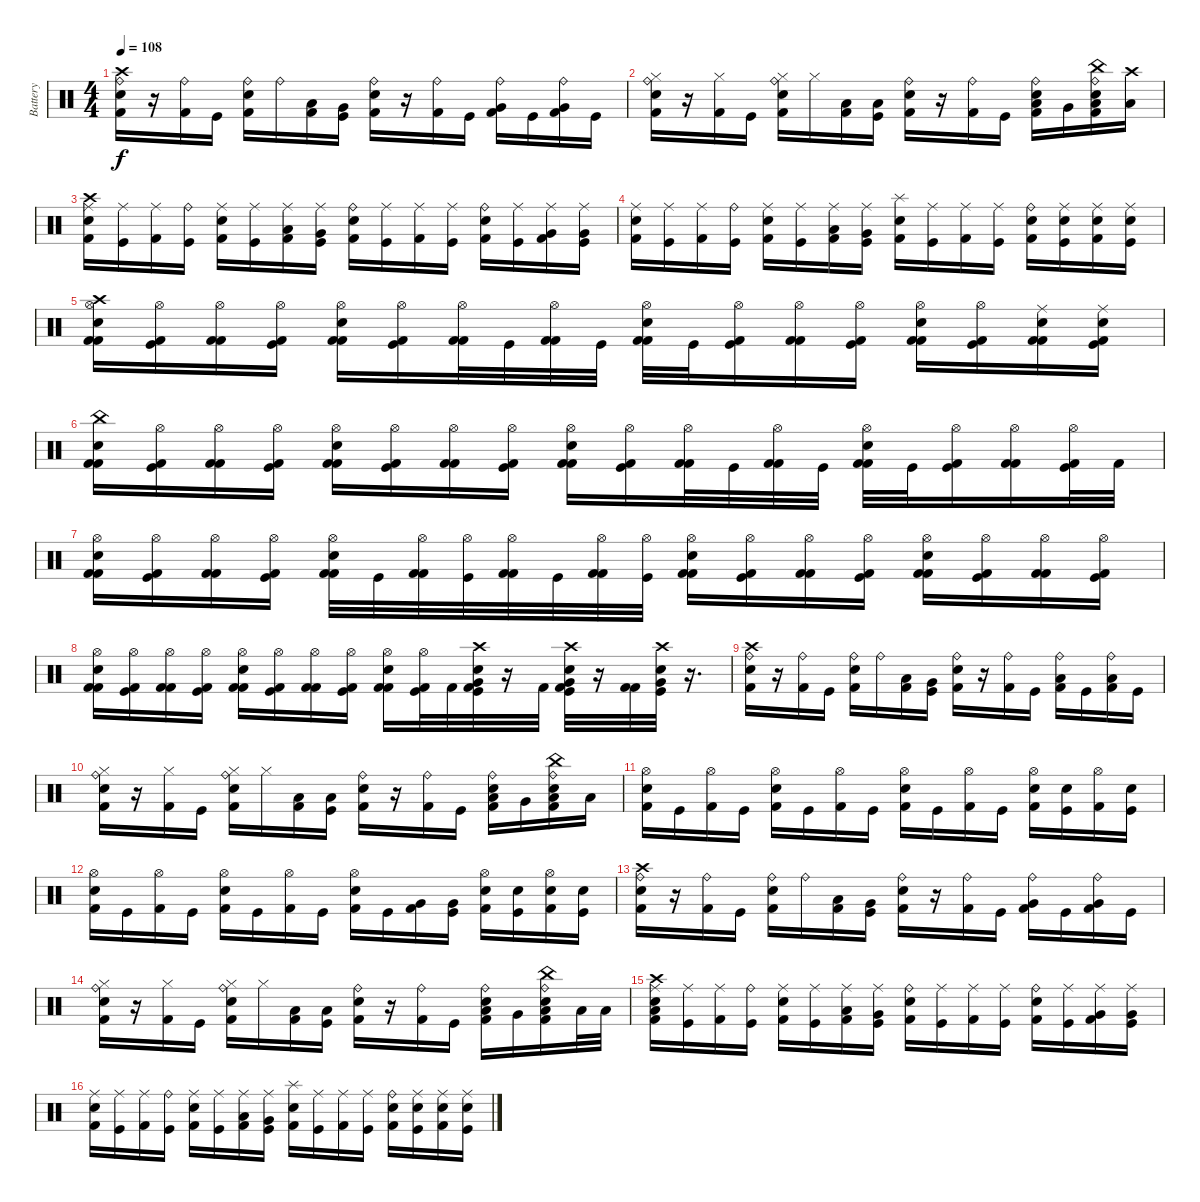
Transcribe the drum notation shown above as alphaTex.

\track ("Battery" "Battery") {instrument percussion}
\staff {score}
\articulation defaults
\ts (4 4)
\tempo 108
\clef neutral
\ks c
("Crash high (hit)" "Ride (bell)" "Electric Snare (hit)" "Kick (hit) 2").16{dy f} r.16 ("Kick (hit) 2" "Ride (bell)").16 "Kick (hit)".16 ("Ride (bell)" "Electric Snare (hit)" "Kick (hit) 2").16 "Ride (bell)".16 ("Kick (hit) 2" "Low Tom (hit)").16 ("Kick (hit)" "Very Low Tom (hit)").16 ("Kick (hit) 2" "Electric Snare (hit)" "Ride (bell)").16 r.16 ("Ride (bell)" "Kick (hit) 2").16 "Kick (hit)".16 ("Very Low Tom (hit)" "Ride (bell)" "Kick (hit) 2").16 "Kick (hit)".16 ("Very Low Tom (hit)" "Ride (bell)" "Kick (hit) 2").16 "Kick (hit)".16 |
("Electric Snare (hit)" "Hi-Hat (closed)" "Ride (bell)" "Kick (hit) 2").16 r.16 ("Hi-Hat (closed)" "Kick (hit) 2").16 "Kick (hit)".16 ("Hi-Hat (closed)" "Kick (hit) 2" "Electric Snare (hit)" "Ride (bell)").16 "Hi-Hat (closed)".16 ("Kick (hit) 2" "Low Tom (hit)").16 ("Low Tom (hit)" "Kick (hit)").16 ("Electric Snare (hit)" "Kick (hit) 2" "Ride (bell)").16 r.16 ("Ride (bell)" "Kick (hit) 2").16 "Kick (hit)".16 ("Low Tom (hit)" "Ride (bell)" "Electric Snare (hit)" "Kick (hit) 2").16 "Very Low Tom (hit)".16 ("Low Floor Tom (hit)" "Electric Snare (hit)" "Ride (bell)" "China (hit)" "Kick (hit) 2").16 ("Low Floor Tom (hit)" "Crash high (hit)").16 |
("Kick (hit) 2" "Crash high (hit)" "Electric Snare (hit)" "Ride (middle)").16 ("Ride (middle)" "Kick (hit)").16 ("Ride (middle)" "Kick (hit) 2").16 ("Kick (hit)" "Ride (bell)").16 ("Kick (hit) 2" "Electric Snare (hit)" "Ride (middle)").16 ("Ride (middle)" "Kick (hit)").16 ("Ride (middle)" "Low Tom (hit)" "Kick (hit) 2").16 ("Kick (hit)" "Very Low Tom (hit)" "Ride (middle)").16 ("Kick (hit) 2" "Electric Snare (hit)" "Ride (bell)").16 ("Ride (middle)" "Kick (hit)").16 ("Kick (hit) 2" "Ride (middle)").16 ("Kick (hit)" "Ride (middle)").16 ("Ride (bell)" "Electric Snare (hit)" "Kick (hit) 2").16 ("Ride (middle)" "Kick (hit)").16 ("Very Low Tom (hit)" "Kick (hit) 2" "Ride (middle)").16 ("Kick (hit)" "Ride (middle)" "Very Low Tom (hit)").16 |
("Ride (middle)" "Kick (hit) 2" "Electric Snare (hit)").16 ("Kick (hit)" "Ride (middle)").16 ("Kick (hit) 2" "Ride (middle)").16 ("Kick (hit)" "Ride (bell)").16 ("Kick (hit) 2" "Ride (middle)" "Electric Snare (hit)").16 ("Kick (hit)" "Ride (middle)").16 ("Ride (middle)" "Kick (hit) 2" "Low Tom (hit)").16 ("Kick (hit)" "Very Low Tom (hit)" "Ride (middle)").16 ("Splash (hit)" "Electric Snare (hit)" "Kick (hit) 2").16 ("Ride (middle)" "Kick (hit)").16 ("Kick (hit) 2" "Ride (middle)").16 ("Ride (middle)" "Kick (hit)").16 ("Ride (bell)" "Snare (hit) 2" "Kick (hit) 2").16 ("Snare (hit) 2" "Ride (middle)" "Kick (hit)").16 ("Snare (hit) 2" "Kick (hit) 2" "Ride (middle)").16 ("Kick (hit)" "Ride (middle)" "Snare (hit) 2").16 |
("Hi-Hat (open)" "Electric Snare (hit)" "Kick (hit) 2" "Crash high (hit)" "Kick (hit) 2").16 ("Hi-Hat (open)" "Kick (hit)" "Kick (hit) 2").16 ("Kick (hit) 2" "Hi-Hat (open)" "Kick (hit) 2").16 ("Hi-Hat (open)" "Kick (hit)" "Kick (hit) 2").16 ("Electric Snare (hit)" "Kick (hit) 2" "Hi-Hat (open)" "Kick (hit) 2").16 ("Hi-Hat (open)" "Kick (hit)" "Kick (hit) 2").16 ("Kick (hit) 2" "Hi-Hat (open)" "Kick (hit) 2").32 "Kick (hit)".32 ("Kick (hit) 2" "Hi-Hat (open)" "Kick (hit) 2").32 "Kick (hit)".32 ("Kick (hit) 2" "Electric Snare (hit)" "Hi-Hat (open)" "Kick (hit) 2").32 "Kick (hit)".32 ("Kick (hit)" "Hi-Hat (open)" "Kick (hit) 2").16 ("Kick (hit) 2" "Hi-Hat (open)" "Kick (hit) 2").16 ("Kick (hit)" "Hi-Hat (open)" "Kick (hit) 2").16 ("Kick (hit) 2" "Electric Snare (hit)" "Hi-Hat (open)" "Kick (hit) 2").16 ("Kick (hit)" "Hi-Hat (open)" "Kick (hit) 2").16 ("Ride (middle)" "Kick (hit) 2" "Snare (hit) 2" "Kick (hit) 2").16 ("Ride (middle)" "Snare (hit) 2" "Kick (hit)" "Kick (hit) 2").16 |
("China (hit)" "Electric Snare (hit)" "Kick (hit) 2" "Kick (hit) 2").16 ("Hi-Hat (open)" "Kick (hit)" "Kick (hit) 2").16 ("Hi-Hat (open)" "Kick (hit) 2" "Kick (hit) 2").16 ("Kick (hit)" "Hi-Hat (open)" "Kick (hit) 2").16 ("Hi-Hat (open)" "Kick (hit) 2" "Electric Snare (hit)" "Kick (hit) 2").16 ("Kick (hit)" "Hi-Hat (open)" "Kick (hit) 2").16 ("Hi-Hat (open)" "Kick (hit) 2" "Kick (hit) 2").16 ("Hi-Hat (open)" "Kick (hit)" "Kick (hit) 2").16 ("Electric Snare (hit)" "Kick (hit) 2" "Hi-Hat (open)" "Kick (hit) 2").16 ("Kick (hit)" "Hi-Hat (open)" "Kick (hit) 2").16 ("Kick (hit) 2" "Hi-Hat (open)" "Kick (hit) 2").32 "Kick (hit)".32 ("Kick (hit) 2" "Hi-Hat (open)" "Kick (hit) 2").32 "Kick (hit)".32 ("Kick (hit) 2" "Hi-Hat (open)" "Electric Snare (hit)" "Kick (hit) 2").32 "Kick (hit)".32 ("Hi-Hat (open)" "Kick (hit)" "Kick (hit) 2").16 ("Hi-Hat (open)" "Kick (hit) 2" "Kick (hit) 2").16 ("Hi-Hat (open)" "Kick (hit)" "Kick (hit) 2").32 "Kick (hit) 2".32 |
("Hi-Hat (open)" "Kick (hit) 2" "Electric Snare (hit)" "Kick (hit) 2").16 ("Hi-Hat (open)" "Kick (hit)" "Kick (hit) 2").16 ("Kick (hit) 2" "Hi-Hat (open)" "Kick (hit) 2").16 ("Kick (hit)" "Hi-Hat (open)" "Kick (hit) 2").16 ("Electric Snare (hit)" "Kick (hit) 2" "Hi-Hat (open)" "Kick (hit) 2").32 "Kick (hit)".32 ("Kick (hit) 2" "Hi-Hat (open)" "Kick (hit) 2").32 ("Hi-Hat (open)" "Kick (hit)").32 ("Hi-Hat (open)" "Kick (hit) 2" "Kick (hit) 2").32 "Kick (hit)".32 ("Hi-Hat (open)" "Kick (hit) 2" "Kick (hit) 2").32 ("Hi-Hat (open)" "Kick (hit)").32 ("Hi-Hat (open)" "Kick (hit) 2" "Electric Snare (hit)" "Kick (hit) 2").16 ("Hi-Hat (open)" "Kick (hit)" "Kick (hit) 2").16 ("Hi-Hat (open)" "Kick (hit) 2" "Kick (hit) 2").16 ("Hi-Hat (open)" "Kick (hit)" "Kick (hit) 2").16 ("Kick (hit) 2" "Electric Snare (hit)" "Hi-Hat (open)" "Kick (hit) 2").16 ("Hi-Hat (open)" "Kick (hit)" "Kick (hit) 2").16 ("Kick (hit) 2" "Hi-Hat (open)" "Kick (hit) 2").16 ("Kick (hit)" "Hi-Hat (open)" "Kick (hit) 2").16 |
("Kick (hit) 2" "Hi-Hat (open)" "Electric Snare (hit)" "Kick (hit) 2").16 ("Hi-Hat (open)" "Kick (hit)" "Kick (hit) 2").16 ("Hi-Hat (open)" "Kick (hit) 2" "Kick (hit) 2").16 ("Kick (hit)" "Hi-Hat (open)" "Kick (hit) 2").16 ("Hi-Hat (open)" "Electric Snare (hit)" "Kick (hit) 2" "Kick (hit) 2").16 ("Kick (hit)" "Hi-Hat (open)" "Kick (hit) 2").16 ("Hi-Hat (open)" "Kick (hit) 2" "Kick (hit) 2").16 ("Hi-Hat (open)" "Kick (hit)" "Kick (hit) 2").16 ("Electric Snare (hit)" "Hi-Hat (open)" "Kick (hit) 2" "Kick (hit) 2").16 ("Kick (hit)" "Hi-Hat (open)" "Kick (hit) 2").32 "Kick (hit) 2".32 ("Very Low Tom (hit)" "Kick (hit)" "Crash high (hit)" "Snare (hit) 2" "Kick (hit) 2").32 r.16 "Kick (hit) 2".32 ("Snare (hit) 2" "Crash high (hit)" "Very Low Tom (hit)" "Kick (hit)" "Kick (hit) 2").32 r.16 ("Kick (hit) 2" "Kick (hit) 2").32 ("Crash high (hit)" "Very Low Tom (hit)" "Snare (hit) 2" "Kick (hit)").32 r.16{d} |
("Electric Snare (hit)" "Ride (bell)" "Crash high (hit)" "Kick (hit) 2").16 r.16 ("Ride (bell)" "Kick (hit) 2").16 "Kick (hit)".16 ("Ride (bell)" "Kick (hit) 2" "Electric Snare (hit)").16 "Ride (bell)".16 ("Low Tom (hit)" "Kick (hit) 2").16 ("Kick (hit)" "Very Low Tom (hit)").16 ("Kick (hit) 2" "Ride (bell)" "Electric Snare (hit)").16 r.16 ("Kick (hit) 2" "Ride (bell)").16 "Kick (hit)".16 ("Low Tom (hit)" "Ride (bell)" "Kick (hit) 2").16 "Kick (hit)".16 ("Ride (bell)" "Kick (hit) 2" "Low Tom (hit)").16 "Kick (hit)".16 |
("Hi-Hat (closed)" "Ride (bell)" "Electric Snare (hit)" "Kick (hit) 2").16 r.16 ("Kick (hit) 2" "Hi-Hat (closed)").16 "Kick (hit)".16 ("Ride (bell)" "Electric Snare (hit)" "Hi-Hat (closed)" "Kick (hit) 2").16 "Hi-Hat (closed)".16 ("Low Tom (hit)" "Kick (hit) 2").16 ("Kick (hit)" "Low Tom (hit)").16 ("Electric Snare (hit)" "Kick (hit) 2" "Ride (bell)").16 r.16 ("Ride (bell)" "Kick (hit) 2").16 "Kick (hit)".16 ("Low Tom (hit)" "Kick (hit) 2" "Electric Snare (hit)" "Ride (bell)").16 "Very Low Tom (hit)".16 ("Electric Snare (hit)" "China (hit)" "Low Floor Tom (hit)" "Ride (bell)" "Kick (hit) 2").16 "Low Floor Tom (hit)".16 |
("Hi-Hat (open)" "Kick (hit) 2" "Electric Snare (hit)").16 "Kick (hit)".16 ("Hi-Hat (open)" "Kick (hit) 2").16 "Kick (hit)".16 ("Electric Snare (hit)" "Hi-Hat (open)" "Kick (hit) 2").16 "Kick (hit)".16 ("Hi-Hat (open)" "Kick (hit) 2").16 "Kick (hit)".16 ("Electric Snare (hit)" "Kick (hit) 2" "Hi-Hat (open)").16 "Kick (hit)".16 ("Hi-Hat (open)" "Kick (hit) 2").16 "Kick (hit)".16 ("Electric Snare (hit)" "Kick (hit) 2" "Hi-Hat (open)").16 ("Kick (hit)" "Electric Snare (hit)").16 ("Hi-Hat (open)" "Kick (hit) 2").16 ("Electric Snare (hit)" "Kick (hit)").16 |
("Kick (hit) 2" "Hi-Hat (open)" "Electric Snare (hit)").16 "Kick (hit)".16 ("Hi-Hat (open)" "Kick (hit) 2").16 "Kick (hit)".16 ("Kick (hit) 2" "Hi-Hat (open)" "Electric Snare (hit)").16 "Kick (hit)".16 ("Kick (hit) 2" "Hi-Hat (open)").16 "Kick (hit)".16 ("Electric Snare (hit)" "Hi-Hat (open)" "Kick (hit) 2").16 "Kick (hit)".16 ("Kick (hit) 2" "Very Low Tom (hit)").16 ("Very Low Tom (hit)" "Kick (hit)").16 ("Snare (hit) 2" "Hi-Hat (open)" "Kick (hit) 2").16 ("Kick (hit)" "Snare (hit) 2").16 ("Kick (hit) 2" "Electric Snare (hit)" "Hi-Hat (open)").16 ("Kick (hit)" "Electric Snare (hit)").16 |
("Crash high (hit)" "Ride (bell)" "Electric Snare (hit)" "Kick (hit) 2").16 r.16 ("Kick (hit) 2" "Ride (bell)").16 "Kick (hit)".16 ("Ride (bell)" "Electric Snare (hit)" "Kick (hit) 2").16 "Ride (bell)".16 ("Kick (hit) 2" "Low Tom (hit)").16 ("Kick (hit)" "Very Low Tom (hit)").16 ("Kick (hit) 2" "Electric Snare (hit)" "Ride (bell)").16 r.16 ("Ride (bell)" "Kick (hit) 2").16 "Kick (hit)".16 ("Very Low Tom (hit)" "Ride (bell)" "Kick (hit) 2").16 "Kick (hit)".16 ("Very Low Tom (hit)" "Ride (bell)" "Kick (hit) 2").16 "Kick (hit)".16 |
("Electric Snare (hit)" "Hi-Hat (closed)" "Ride (bell)" "Kick (hit) 2").16 r.16 ("Hi-Hat (closed)" "Kick (hit) 2").16 "Kick (hit)".16 ("Hi-Hat (closed)" "Kick (hit) 2" "Electric Snare (hit)" "Ride (bell)").16 "Hi-Hat (closed)".16 ("Kick (hit) 2" "Low Tom (hit)").16 ("Low Tom (hit)" "Kick (hit)").16 ("Electric Snare (hit)" "Kick (hit) 2" "Ride (bell)").16 r.16 ("Ride (bell)" "Kick (hit) 2").16 "Kick (hit)".16 ("Low Tom (hit)" "Ride (bell)" "Electric Snare (hit)" "Kick (hit) 2").16 "Very Low Tom (hit)".16 ("Low Floor Tom (hit)" "Electric Snare (hit)" "Ride (bell)" "China (hit)" "Kick (hit) 2").16 "Low Tom (hit)".32 "Low Tom (hit)".32 |
("Low Tom (hit)" "Kick (hit) 2" "Crash high (hit)" "Electric Snare (hit)" "Ride (middle)").16 ("Ride (middle)" "Kick (hit)").16 ("Ride (middle)" "Kick (hit) 2").16 ("Kick (hit)" "Ride (bell)").16 ("Kick (hit) 2" "Electric Snare (hit)" "Ride (middle)").16 ("Ride (middle)" "Kick (hit)").16 ("Ride (middle)" "Low Tom (hit)" "Kick (hit) 2").16 ("Kick (hit)" "Very Low Tom (hit)" "Ride (middle)").16 ("Kick (hit) 2" "Electric Snare (hit)" "Ride (bell)").16 ("Ride (middle)" "Kick (hit)").16 ("Kick (hit) 2" "Ride (middle)").16 ("Kick (hit)" "Ride (middle)").16 ("Ride (bell)" "Electric Snare (hit)" "Kick (hit) 2").16 ("Ride (middle)" "Kick (hit)").16 ("Very Low Tom (hit)" "Kick (hit) 2" "Ride (middle)").16 ("Kick (hit)" "Ride (middle)" "Very Low Tom (hit)").16 |
("Ride (middle)" "Kick (hit) 2" "Electric Snare (hit)").16 ("Kick (hit)" "Ride (middle)").16 ("Kick (hit) 2" "Ride (middle)").16 ("Kick (hit)" "Ride (bell)").16 ("Kick (hit) 2" "Ride (middle)" "Electric Snare (hit)").16 ("Kick (hit)" "Ride (middle)").16 ("Ride (middle)" "Kick (hit) 2" "Low Tom (hit)").16 ("Kick (hit)" "Very Low Tom (hit)" "Ride (middle)").16 ("Splash (hit)" "Electric Snare (hit)" "Kick (hit) 2").16 ("Ride (middle)" "Kick (hit)").16 ("Kick (hit) 2" "Ride (middle)").16 ("Ride (middle)" "Kick (hit)").16 ("Ride (bell)" "Snare (hit) 2" "Kick (hit) 2").16 ("Snare (hit) 2" "Ride (middle)" "Kick (hit)").16 ("Snare (hit) 2" "Kick (hit) 2" "Ride (middle)").16 ("Kick (hit)" "Ride (middle)" "Snare (hit) 2").16
